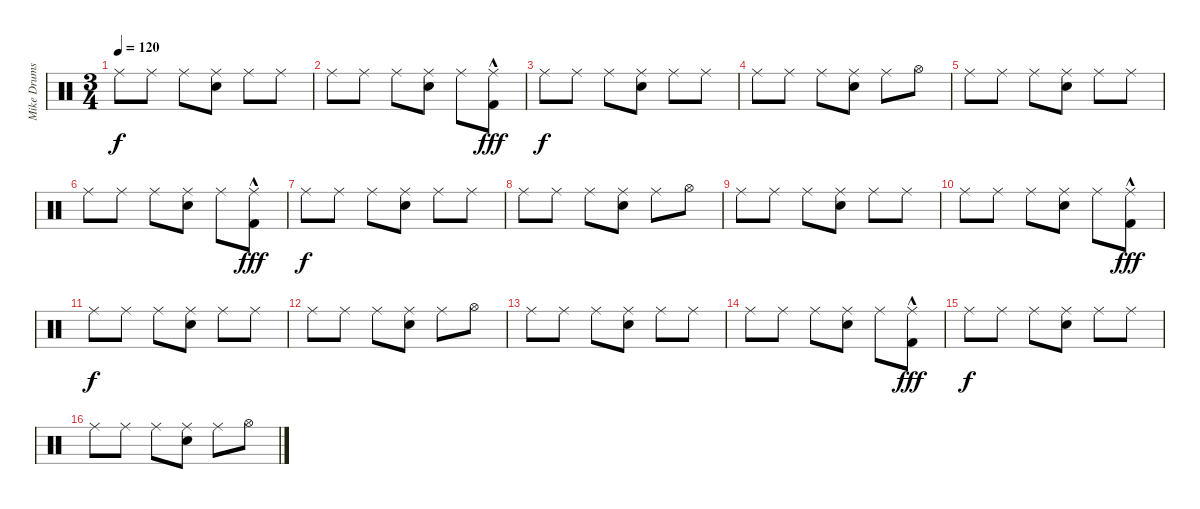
\track ("Mike Drums" "Mike Drums") {instrument percussion}
\staff {score}
\articulation defaults
\ts (3 4)
\tempo 120
\clef neutral
\ks c "Ride (middle)".8{dy f} "Ride (middle)".8 "Ride (middle)".8
("Ride (middle)" "Electric Snare (hit)").8 "Ride (middle)".8 "Ride (middle)".8 |
"Ride (middle)".8 "Ride (middle)".8 "Ride (middle)".8 ("Ride (middle)" "Electric Snare (hit)").8 "Ride (middle)".8 ("Ride (middle)" "Kick (hit) 2"{hac}).8{dy fff} |
"Ride (middle)".8{dy f} "Ride (middle)".8 "Ride (middle)".8 ("Ride (middle)" "Electric Snare (hit)").8 "Ride (middle)".8 "Ride (middle)".8 |
"Ride (middle)".8 "Ride (middle)".8 "Ride (middle)".8 ("Ride (middle)" "Electric Snare (hit)").8 "Ride (middle)".8 "Hi-Hat (open)".8 |
"Ride (middle)".8 "Ride (middle)".8 "Ride (middle)".8 ("Ride (middle)" "Electric Snare (hit)").8 "Ride (middle)".8 "Ride (middle)".8 |
"Ride (middle)".8 "Ride (middle)".8 "Ride (middle)".8 ("Ride (middle)" "Electric Snare (hit)").8 "Ride (middle)".8 ("Ride (middle)" "Kick (hit) 2"{hac}).8{dy fff} |
"Ride (middle)".8{dy f} "Ride (middle)".8 "Ride (middle)".8 ("Ride (middle)" "Electric Snare (hit)").8 "Ride (middle)".8 "Ride (middle)".8 |
"Ride (middle)".8 "Ride (middle)".8 "Ride (middle)".8 ("Ride (middle)" "Electric Snare (hit)").8 "Ride (middle)".8 "Hi-Hat (open)".8 |
"Ride (middle)".8 "Ride (middle)".8 "Ride (middle)".8 ("Ride (middle)" "Electric Snare (hit)").8 "Ride (middle)".8 "Ride (middle)".8 |
"Ride (middle)".8 "Ride (middle)".8 "Ride (middle)".8 ("Ride (middle)" "Electric Snare (hit)").8 "Ride (middle)".8 ("Ride (middle)" "Kick (hit) 2"{hac}).8{dy fff} |
"Ride (middle)".8{dy f} "Ride (middle)".8 "Ride (middle)".8 ("Ride (middle)" "Electric Snare (hit)").8 "Ride (middle)".8 "Ride (middle)".8 |
"Ride (middle)".8 "Ride (middle)".8 "Ride (middle)".8 ("Ride (middle)" "Electric Snare (hit)").8 "Ride (middle)".8 "Hi-Hat (open)".8 |
"Ride (middle)".8 "Ride (middle)".8 "Ride (middle)".8 ("Ride (middle)" "Electric Snare (hit)").8 "Ride (middle)".8 "Ride (middle)".8 |
"Ride (middle)".8 "Ride (middle)".8 "Ride (middle)".8 ("Ride (middle)" "Electric Snare (hit)").8 "Ride (middle)".8 ("Ride (middle)" "Kick (hit) 2"{hac}).8{dy fff} |
"Ride (middle)".8{dy f} "Ride (middle)".8 "Ride (middle)".8 ("Ride (middle)" "Electric Snare (hit)").8 "Ride (middle)".8 "Ride (middle)".8 |
"Ride (middle)".8 "Ride (middle)".8 "Ride (middle)".8 ("Ride (middle)" "Electric Snare (hit)").8 "Ride (middle)".8 "Hi-Hat (open)".8
